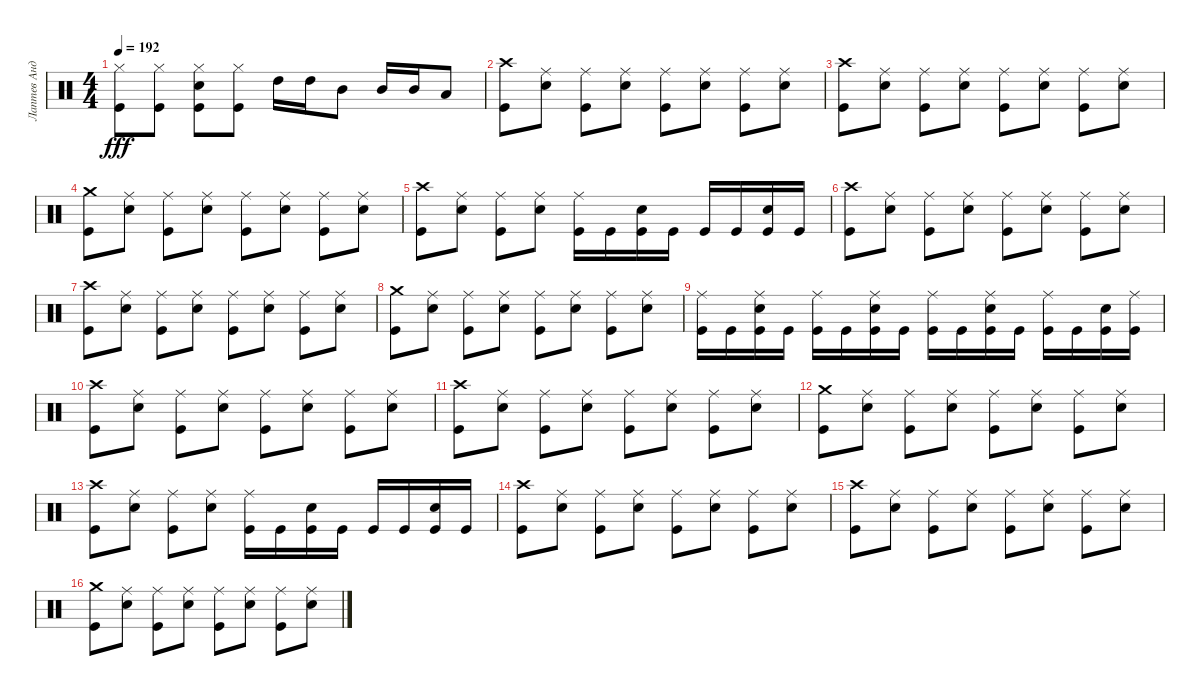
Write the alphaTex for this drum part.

\track ("Лаптев Андрей" "Лаптев Анд") {instrument percussion}
\staff {score}
\articulation defaults
\ts (4 4)
\tempo 192
\clef neutral
\ks c
("Kick (hit)" "Hi-Hat (closed)").8{dy fff} ("Hi-Hat (closed)" "Kick (hit)").8 ("Hi-Hat (closed)" "Electric Snare (hit)" "Kick (hit)").8 ("Kick (hit)" "Hi-Hat (closed)").8 "High Tom (hit)".16 "High Tom (hit)".16 "Mid Tom (hit)".8 "Mid Tom (hit)".16 "Mid Tom (hit)".16 "Low Tom (hit)".8 |
("Kick (hit)" "Crash high (hit)").8 ("Ride (middle)" "Electric Snare (hit)").8 ("Ride (middle)" "Kick (hit)").8 ("Electric Snare (hit)" "Ride (middle)").8 ("Ride (middle)" "Kick (hit)").8 ("Ride (middle)" "Electric Snare (hit)").8 ("Kick (hit)" "Ride (middle)").8 ("Ride (middle)" "Electric Snare (hit)").8 |
("Kick (hit)" "Crash high (hit)").8 ("Electric Snare (hit)" "Ride (middle)").8 ("Kick (hit)" "Ride (middle)").8 ("Electric Snare (hit)" "Ride (middle)").8 ("Ride (middle)" "Kick (hit)").8 ("Ride (middle)" "Electric Snare (hit)").8 ("Kick (hit)" "Ride (middle)").8 ("Ride (middle)" "Electric Snare (hit)").8 |
("Crash medium (hit)" "Kick (hit)").8 ("Ride (middle)" "Electric Snare (hit)").8 ("Ride (middle)" "Kick (hit)").8 ("Ride (middle)" "Electric Snare (hit)").8 ("Kick (hit)" "Ride (middle)").8 ("Electric Snare (hit)" "Ride (middle)").8 ("Kick (hit)" "Ride (middle)").8 ("Electric Snare (hit)" "Ride (middle)").8 |
("Kick (hit)" "Crash high (hit)").8 ("Ride (middle)" "Electric Snare (hit)").8 ("Kick (hit)" "Ride (middle)").8 ("Ride (middle)" "Electric Snare (hit)").8 ("Ride (middle)" "Kick (hit)").16 "Kick (hit)".16 ("Kick (hit)" "Electric Snare (hit)").16 "Kick (hit)".16 "Kick (hit)".16 "Kick (hit)".16 ("Kick (hit)" "Electric Snare (hit)").16 "Kick (hit)".16 |
("Kick (hit)" "Crash high (hit)").8 ("Ride (middle)" "Electric Snare (hit)").8 ("Kick (hit)" "Ride (middle)").8 ("Electric Snare (hit)" "Ride (middle)").8 ("Kick (hit)" "Ride (middle)").8 ("Electric Snare (hit)" "Ride (middle)").8 ("Kick (hit)" "Ride (middle)").8 ("Ride (middle)" "Electric Snare (hit)").8 |
("Crash high (hit)" "Kick (hit)").8 ("Electric Snare (hit)" "Ride (middle)").8 ("Ride (middle)" "Kick (hit)").8 ("Ride (middle)" "Electric Snare (hit)").8 ("Ride (middle)" "Kick (hit)").8 ("Electric Snare (hit)" "Ride (middle)").8 ("Kick (hit)" "Ride (middle)").8 ("Electric Snare (hit)" "Ride (middle)").8 |
("Crash medium (hit)" "Kick (hit)").8 ("Electric Snare (hit)" "Ride (middle)").8 ("Ride (middle)" "Kick (hit)").8 ("Electric Snare (hit)" "Ride (middle)").8 ("Ride (middle)" "Kick (hit)").8 ("Electric Snare (hit)" "Ride (middle)").8 ("Ride (middle)" "Kick (hit)").8 ("Ride (middle)" "Electric Snare (hit)").8 |
("Ride (middle)" "Kick (hit)").16 "Kick (hit)".16 ("Kick (hit)" "Electric Snare (hit)" "Ride (middle)").16 "Kick (hit)".16 ("Ride (middle)" "Kick (hit)").16 "Kick (hit)".16 ("Electric Snare (hit)" "Ride (middle)" "Kick (hit)").16 "Kick (hit)".16 ("Kick (hit)" "Ride (middle)").16 "Kick (hit)".16 ("Electric Snare (hit)" "Kick (hit)" "Ride (middle)").16 "Kick (hit)".16 ("Ride (middle)" "Kick (hit)").16 "Kick (hit)".16 ("Electric Snare (hit)" "Kick (hit)").16 ("Kick (hit)" "Ride (middle)").16 |
("Crash high (hit)" "Kick (hit)").8 ("Electric Snare (hit)" "Ride (middle)").8 ("Ride (middle)" "Kick (hit)").8 ("Electric Snare (hit)" "Ride (middle)").8 ("Ride (middle)" "Kick (hit)").8 ("Electric Snare (hit)" "Ride (middle)").8 ("Ride (middle)" "Kick (hit)").8 ("Electric Snare (hit)" "Ride (middle)").8 |
("Crash high (hit)" "Kick (hit)").8 ("Ride (middle)" "Electric Snare (hit)").8 ("Kick (hit)" "Ride (middle)").8 ("Electric Snare (hit)" "Ride (middle)").8 ("Kick (hit)" "Ride (middle)").8 ("Electric Snare (hit)" "Ride (middle)").8 ("Kick (hit)" "Ride (middle)").8 ("Ride (middle)" "Electric Snare (hit)").8 |
("Kick (hit)" "Crash medium (hit)").8 ("Electric Snare (hit)" "Ride (middle)").8 ("Ride (middle)" "Kick (hit)").8 ("Electric Snare (hit)" "Ride (middle)").8 ("Kick (hit)" "Ride (middle)").8 ("Ride (middle)" "Electric Snare (hit)").8 ("Kick (hit)" "Ride (middle)").8 ("Electric Snare (hit)" "Ride (middle)").8 |
("Crash high (hit)" "Kick (hit)").8 ("Electric Snare (hit)" "Ride (middle)").8 ("Ride (middle)" "Kick (hit)").8 ("Electric Snare (hit)" "Ride (middle)").8 ("Ride (middle)" "Kick (hit)").16 "Kick (hit)".16 ("Kick (hit)" "Electric Snare (hit)").16 "Kick (hit)".16 "Kick (hit)".16 "Kick (hit)".16 ("Electric Snare (hit)" "Kick (hit)").16 "Kick (hit)".16 |
("Kick (hit)" "Crash high (hit)").8 ("Ride (middle)" "Electric Snare (hit)").8 ("Kick (hit)" "Ride (middle)").8 ("Ride (middle)" "Electric Snare (hit)").8 ("Kick (hit)" "Ride (middle)").8 ("Electric Snare (hit)" "Ride (middle)").8 ("Kick (hit)" "Ride (middle)").8 ("Ride (middle)" "Electric Snare (hit)").8 |
("Kick (hit)" "Crash high (hit)").8 ("Ride (middle)" "Electric Snare (hit)").8 ("Ride (middle)" "Kick (hit)").8 ("Electric Snare (hit)" "Ride (middle)").8 ("Ride (middle)" "Kick (hit)").8 ("Electric Snare (hit)" "Ride (middle)").8 ("Kick (hit)" "Ride (middle)").8 ("Ride (middle)" "Electric Snare (hit)").8 |
("Crash medium (hit)" "Kick (hit)").8 ("Ride (middle)" "Electric Snare (hit)").8 ("Kick (hit)" "Ride (middle)").8 ("Ride (middle)" "Electric Snare (hit)").8 ("Ride (middle)" "Kick (hit)").8 ("Ride (middle)" "Electric Snare (hit)").8 ("Ride (middle)" "Kick (hit)").8 ("Electric Snare (hit)" "Ride (middle)").8
